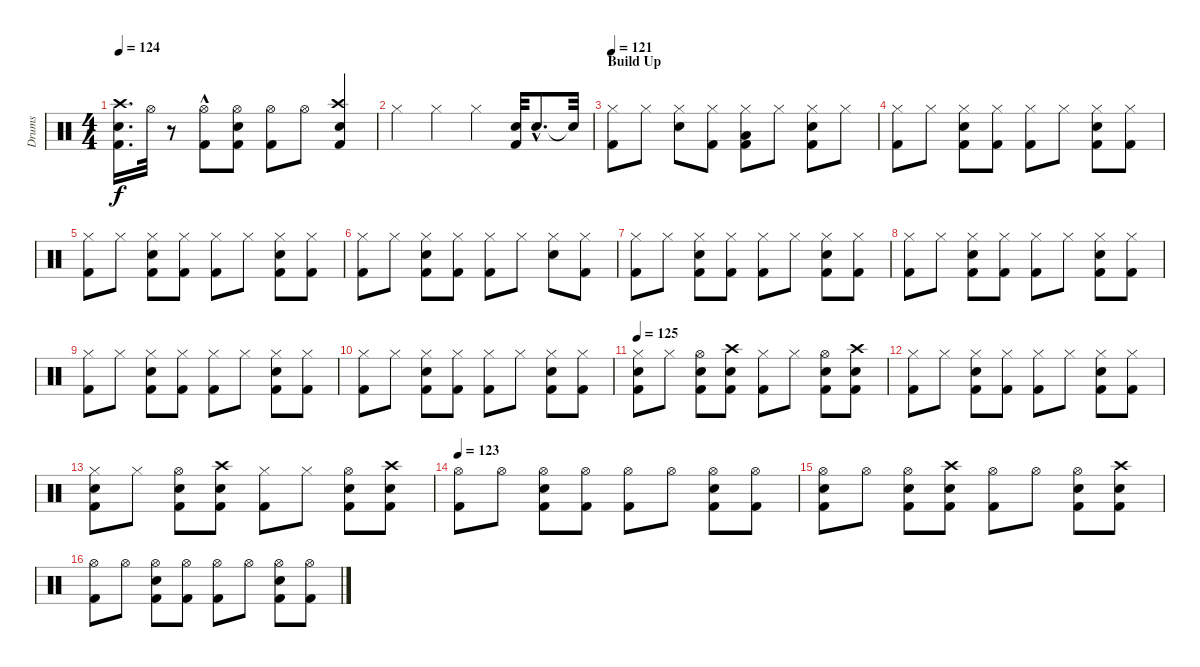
\track ("Drums" "Drums") {instrument percussion}
\staff {score}
\articulation defaults
\ts (4 4)
\tempo 124
\clef neutral
\ks c
("Snare (hit) 2" "Crash high (hit)" "Kick (hit) 2").16{d dy f} "Hi-Hat (open)".32 r.8 ("Hi-Hat (open)"{hac} "Kick (hit) 2").8 ("Hi-Hat (open)" "Snare (hit) 2" "Kick (hit) 2").8 ("Hi-Hat (open)" "Kick (hit) 2").8 "Hi-Hat (open)".8 ("Snare (hit) 2" "Kick (hit) 2" "Crash high (hit)").4 |
"Hi-Hat (closed)".4 "Hi-Hat (closed)".4 "Hi-Hat (closed)".4 ("Kick (hit) 2" "Snare (hit) 2").32 "Snare (hit) 2"{hac}.8{d} "Snare (hit)"{t}.32 |
\section ("" "Build Up")
\tempo 121
("Kick (hit) 2" "Hi-Hat (closed)").8 "Hi-Hat (closed)".8 ("Hi-Hat (closed)" "Snare (hit) 2").8 ("Kick (hit) 2" "Hi-Hat (closed)").8 ("Hi-Hat (closed)" "Low Floor Tom (hit)" "Kick (hit) 2").8 "Hi-Hat (closed)".8 ("Hi-Hat (closed)" "Kick (hit) 2" "Snare (hit) 2").8 "Hi-Hat (closed)".8 |
("Hi-Hat (closed)" "Kick (hit) 2").8 "Hi-Hat (closed)".8 ("Snare (hit) 2" "Hi-Hat (closed)" "Kick (hit) 2").8 ("Kick (hit) 2" "Hi-Hat (closed)").8 ("Kick (hit) 2" "Hi-Hat (closed)").8 "Hi-Hat (closed)".8 ("Kick (hit) 2" "Hi-Hat (closed)" "Snare (hit) 2").8 ("Kick (hit) 2" "Hi-Hat (closed)").8 |
("Hi-Hat (closed)" "Kick (hit) 2").8 "Hi-Hat (closed)".8 ("Kick (hit) 2" "Hi-Hat (closed)" "Snare (hit) 2").8 ("Kick (hit) 2" "Hi-Hat (closed)").8 ("Kick (hit) 2" "Hi-Hat (closed)").8 "Hi-Hat (closed)".8 ("Hi-Hat (closed)" "Snare (hit) 2" "Kick (hit) 2").8 ("Kick (hit) 2" "Hi-Hat (closed)").8 |
("Hi-Hat (closed)" "Kick (hit) 2").8 "Hi-Hat (closed)".8 ("Kick (hit) 2" "Snare (hit) 2" "Hi-Hat (closed)").8 ("Kick (hit) 2" "Hi-Hat (closed)").8 ("Kick (hit) 2" "Hi-Hat (closed)").8 "Hi-Hat (closed)".8 ("Snare (hit) 2" "Hi-Hat (closed)").8 ("Kick (hit) 2" "Hi-Hat (closed)").8 |
("Hi-Hat (closed)" "Kick (hit) 2").8 "Hi-Hat (closed)".8 ("Kick (hit) 2" "Snare (hit) 2" "Hi-Hat (closed)").8 ("Kick (hit) 2" "Hi-Hat (closed)").8 ("Kick (hit) 2" "Hi-Hat (closed)").8 "Hi-Hat (closed)".8 ("Snare (hit) 2" "Hi-Hat (closed)" "Kick (hit) 2").8 ("Kick (hit) 2" "Hi-Hat (closed)").8 |
("Hi-Hat (closed)" "Kick (hit) 2").8 "Hi-Hat (closed)".8 ("Kick (hit) 2" "Snare (hit) 2" "Hi-Hat (closed)").8 ("Kick (hit) 2" "Hi-Hat (closed)").8 ("Kick (hit) 2" "Hi-Hat (closed)").8 "Hi-Hat (closed)".8 ("Snare (hit) 2" "Hi-Hat (closed)" "Kick (hit) 2").8 ("Kick (hit) 2" "Hi-Hat (closed)").8 |
("Hi-Hat (closed)" "Kick (hit) 2").8 "Hi-Hat (closed)".8 ("Kick (hit) 2" "Snare (hit) 2" "Hi-Hat (closed)").8 ("Kick (hit) 2" "Hi-Hat (closed)").8 ("Kick (hit) 2" "Hi-Hat (closed)").8 "Hi-Hat (closed)".8 ("Snare (hit) 2" "Hi-Hat (closed)" "Kick (hit) 2").8 ("Kick (hit) 2" "Hi-Hat (closed)").8 |
("Hi-Hat (closed)" "Kick (hit) 2").8 "Hi-Hat (closed)".8 ("Kick (hit) 2" "Snare (hit) 2" "Hi-Hat (closed)").8 ("Kick (hit) 2" "Hi-Hat (closed)").8 ("Kick (hit) 2" "Hi-Hat (closed)").8 "Hi-Hat (closed)".8 ("Snare (hit) 2" "Hi-Hat (closed)" "Kick (hit) 2").8 ("Kick (hit) 2" "Hi-Hat (closed)").8 |
\tempo 125
("Hi-Hat (closed)" "Snare (hit) 2" "Kick (hit) 2").8 "Hi-Hat (closed)".8 ("Snare (hit) 2" "Kick (hit) 2" "Hi-Hat (open)").8 ("Kick (hit) 2" "Snare (hit) 2" "Crash high (hit)").8 ("Kick (hit) 2" "Hi-Hat (closed)").8 "Hi-Hat (closed)".8 ("Snare (hit) 2" "Kick (hit) 2" "Hi-Hat (open)").8 ("Snare (hit) 2" "Kick (hit) 2" "Crash high (hit)").8 |
("Kick (hit) 2" "Hi-Hat (closed)").8 "Hi-Hat (closed)".8 ("Kick (hit) 2" "Snare (hit) 2" "Hi-Hat (closed)").8 ("Kick (hit) 2" "Hi-Hat (closed)").8 ("Kick (hit) 2" "Hi-Hat (closed)").8 "Hi-Hat (closed)".8 ("Snare (hit) 2" "Hi-Hat (closed)" "Kick (hit) 2").8 ("Kick (hit) 2" "Hi-Hat (closed)").8 |
("Hi-Hat (closed)" "Snare (hit) 2" "Kick (hit) 2").8 "Hi-Hat (closed)".8 ("Snare (hit) 2" "Kick (hit) 2" "Hi-Hat (open)").8 ("Kick (hit) 2" "Snare (hit) 2" "Crash high (hit)").8 ("Kick (hit) 2" "Hi-Hat (closed)").8 "Hi-Hat (closed)".8 ("Snare (hit) 2" "Kick (hit) 2" "Hi-Hat (open)").8 ("Snare (hit) 2" "Kick (hit) 2" "Crash high (hit)").8 |
\tempo 123
("Kick (hit) 2" "Hi-Hat (open)").8 "Hi-Hat (open)".8 ("Hi-Hat (open)" "Kick (hit) 2" "Snare (hit) 2").8 ("Hi-Hat (open)" "Kick (hit) 2").8 ("Hi-Hat (open)" "Kick (hit) 2").8 "Hi-Hat (open)".8 ("Snare (hit) 2" "Hi-Hat (open)" "Kick (hit) 2").8 ("Kick (hit) 2" "Hi-Hat (open)").8 |
("Snare (hit) 2" "Hi-Hat (open)" "Kick (hit) 2").8 "Hi-Hat (open)".8 ("Snare (hit) 2" "Kick (hit) 2" "Hi-Hat (open)").8 ("Crash high (hit)" "Snare (hit) 2" "Kick (hit) 2").8 ("Kick (hit) 2" "Hi-Hat (open)").8 "Hi-Hat (open)".8 ("Snare (hit) 2" "Hi-Hat (open)" "Kick (hit) 2").8 ("Kick (hit) 2" "Crash high (hit)" "Snare (hit) 2").8 |
("Kick (hit) 2" "Hi-Hat (open)").8 "Hi-Hat (open)".8 ("Hi-Hat (open)" "Kick (hit) 2" "Snare (hit) 2").8 ("Hi-Hat (open)" "Kick (hit) 2").8 ("Hi-Hat (open)" "Kick (hit) 2").8 "Hi-Hat (open)".8 ("Hi-Hat (open)" "Snare (hit) 2" "Kick (hit) 2").8 ("Kick (hit) 2" "Hi-Hat (open)").8
